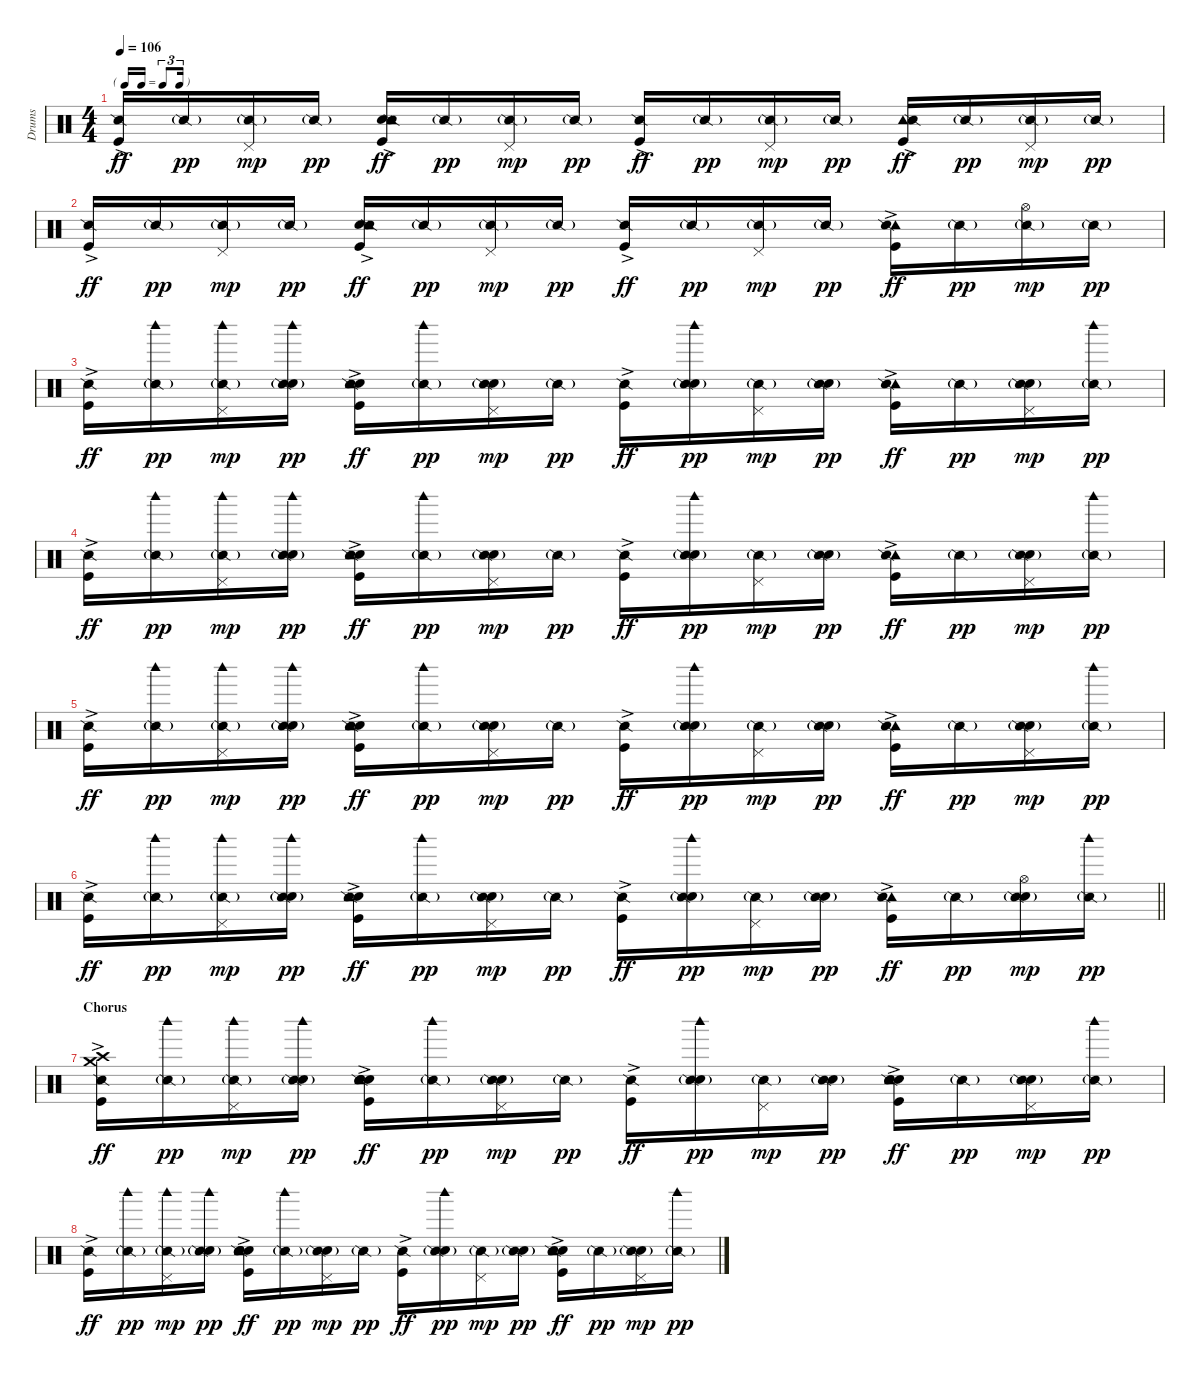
\track ("Drums" "Drums") {instrument percussion}
\staff {score}
\articulation defaults
\ts (4 4)
\tf triplet16th
\tempo 106
\clef neutral
\ks c
("Kick (hit)"{ac} "Snare (side stick) 2").16{dy ff} "Snare (side stick) 2"{g}.16{dy pp} ("Pedal Hi-Hat (hit)" "Snare (side stick) 2"{g}).16{dy mp} "Snare (side stick) 2"{g}.16{dy pp} ("Kick (hit)"{ac} "Hand Clap (hit)" "Tambourine (hit)" "Snare (side stick) 2").16{dy ff} "Snare (side stick) 2"{g}.16{dy pp} ("Pedal Hi-Hat (hit)" "Snare (side stick) 2"{g}).16{dy mp} "Snare (side stick) 2"{g}.16{dy pp} ("Kick (hit)"{ac} "Snare (side stick) 2").16{dy ff} "Snare (side stick) 2"{g}.16{dy pp} ("Pedal Hi-Hat (hit)" "Snare (side stick) 2"{g}).16{dy mp} "Snare (side stick) 2"{g}.16{dy pp} ("Kick (hit)"{ac} "Tambourine (hit)" "Snare (side stick) 2").16{dy ff} "Snare (side stick) 2"{g}.16{dy pp} ("Pedal Hi-Hat (hit)" "Snare (side stick) 2"{g}).16{dy mp} "Snare (side stick) 2"{g}.16{dy pp} |
("Kick (hit)"{ac} "Snare (side stick) 2").16{dy ff} "Snare (side stick) 2"{g}.16{dy pp} ("Pedal Hi-Hat (hit)" "Snare (side stick) 2"{g}).16{dy mp} "Snare (side stick) 2"{g}.16{dy pp} ("Kick (hit)"{ac} "Hand Clap (hit)" "Tambourine (hit)" "Snare (side stick) 2").16{dy ff} "Snare (side stick) 2"{g}.16{dy pp} ("Pedal Hi-Hat (hit)" "Snare (side stick) 2"{g}).16{dy mp} "Snare (side stick) 2"{g}.16{dy pp} ("Kick (hit)"{ac} "Snare (side stick) 2").16{dy ff} "Snare (side stick) 2"{g}.16{dy pp} ("Pedal Hi-Hat (hit)" "Snare (side stick) 2"{g}).16{dy mp} "Snare (side stick) 2"{g}.16{dy pp} ("Kick (hit)"{ac} "Tambourine (hit)" "Snare (side stick) 2").16{dy ff} "Snare (side stick) 2"{g}.16{dy pp} ("Hi-Hat (open)" "Snare (side stick) 2"{g}).16{dy mp} "Snare (side stick) 2"{g}.16{dy pp} |
("Kick (hit)"{ac} "Snare (side stick) 2").16{dy ff} ("Woodblock high (hit)" "Snare (side stick) 2"{g}).16{dy pp} ("Pedal Hi-Hat (hit)" "Woodblock high (hit)" "Snare (side stick) 2"{g}).16{dy mp} ("Hand Clap (hit)" "Woodblock high (hit)" "Snare (side stick) 2"{g}).16{dy pp} ("Kick (hit)"{ac} "Hand Clap (hit)" "Tambourine (hit)" "Snare (side stick) 2").16{dy ff} ("Woodblock high (hit)" "Snare (side stick) 2"{g}).16{dy pp} ("Hand Clap (hit)" "Pedal Hi-Hat (hit)" "Snare (side stick) 2"{g}).16{dy mp} "Snare (side stick) 2"{g}.16{dy pp} ("Kick (hit)"{ac} "Snare (side stick) 2").16{dy ff} ("Hand Clap (hit)" "Woodblock high (hit)" "Snare (side stick) 2"{g}).16{dy pp} ("Pedal Hi-Hat (hit)" "Snare (side stick) 2"{g}).16{dy mp} ("Hand Clap (hit)" "Snare (side stick) 2"{g}).16{dy pp} ("Kick (hit)"{ac} "Tambourine (hit)" "Snare (side stick) 2").16{dy ff} "Snare (side stick) 2"{g}.16{dy pp} ("Hand Clap (hit)" "Pedal Hi-Hat (hit)" "Snare (side stick) 2"{g}).16{dy mp} ("Woodblock high (hit)" "Snare (side stick) 2"{g}).16{dy pp} |
("Kick (hit)"{ac} "Snare (side stick) 2").16{dy ff} ("Woodblock high (hit)" "Snare (side stick) 2"{g}).16{dy pp} ("Pedal Hi-Hat (hit)" "Woodblock high (hit)" "Snare (side stick) 2"{g}).16{dy mp} ("Hand Clap (hit)" "Woodblock high (hit)" "Snare (side stick) 2"{g}).16{dy pp} ("Kick (hit)"{ac} "Hand Clap (hit)" "Tambourine (hit)" "Snare (side stick) 2").16{dy ff} ("Woodblock high (hit)" "Snare (side stick) 2"{g}).16{dy pp} ("Hand Clap (hit)" "Pedal Hi-Hat (hit)" "Snare (side stick) 2"{g}).16{dy mp} "Snare (side stick) 2"{g}.16{dy pp} ("Kick (hit)"{ac} "Snare (side stick) 2").16{dy ff} ("Hand Clap (hit)" "Woodblock high (hit)" "Snare (side stick) 2"{g}).16{dy pp} ("Pedal Hi-Hat (hit)" "Snare (side stick) 2"{g}).16{dy mp} ("Hand Clap (hit)" "Snare (side stick) 2"{g}).16{dy pp} ("Kick (hit)"{ac} "Tambourine (hit)" "Snare (side stick) 2").16{dy ff} "Snare (side stick) 2"{g}.16{dy pp} ("Hand Clap (hit)" "Pedal Hi-Hat (hit)" "Snare (side stick) 2"{g}).16{dy mp} ("Woodblock high (hit)" "Snare (side stick) 2"{g}).16{dy pp} |
("Kick (hit)"{ac} "Snare (side stick) 2").16{dy ff} ("Woodblock high (hit)" "Snare (side stick) 2"{g}).16{dy pp} ("Pedal Hi-Hat (hit)" "Woodblock high (hit)" "Snare (side stick) 2"{g}).16{dy mp} ("Hand Clap (hit)" "Woodblock high (hit)" "Snare (side stick) 2"{g}).16{dy pp} ("Kick (hit)"{ac} "Hand Clap (hit)" "Tambourine (hit)" "Snare (side stick) 2").16{dy ff} ("Woodblock high (hit)" "Snare (side stick) 2"{g}).16{dy pp} ("Hand Clap (hit)" "Pedal Hi-Hat (hit)" "Snare (side stick) 2"{g}).16{dy mp} "Snare (side stick) 2"{g}.16{dy pp} ("Kick (hit)"{ac} "Snare (side stick) 2").16{dy ff} ("Hand Clap (hit)" "Woodblock high (hit)" "Snare (side stick) 2"{g}).16{dy pp} ("Pedal Hi-Hat (hit)" "Snare (side stick) 2"{g}).16{dy mp} ("Hand Clap (hit)" "Snare (side stick) 2"{g}).16{dy pp} ("Kick (hit)"{ac} "Tambourine (hit)" "Snare (side stick) 2").16{dy ff} "Snare (side stick) 2"{g}.16{dy pp} ("Hand Clap (hit)" "Pedal Hi-Hat (hit)" "Snare (side stick) 2"{g}).16{dy mp} ("Woodblock high (hit)" "Snare (side stick) 2"{g}).16{dy pp} |
\barLineRight lightlight
("Kick (hit)"{ac} "Snare (side stick) 2").16{dy ff} ("Woodblock high (hit)" "Snare (side stick) 2"{g}).16{dy pp} ("Pedal Hi-Hat (hit)" "Woodblock high (hit)" "Snare (side stick) 2"{g}).16{dy mp} ("Hand Clap (hit)" "Woodblock high (hit)" "Snare (side stick) 2"{g}).16{dy pp} ("Kick (hit)"{ac} "Hand Clap (hit)" "Tambourine (hit)" "Snare (side stick) 2").16{dy ff} ("Woodblock high (hit)" "Snare (side stick) 2"{g}).16{dy pp} ("Hand Clap (hit)" "Pedal Hi-Hat (hit)" "Snare (side stick) 2"{g}).16{dy mp} "Snare (side stick) 2"{g}.16{dy pp} ("Kick (hit)"{ac} "Snare (side stick) 2").16{dy ff} ("Hand Clap (hit)" "Woodblock high (hit)" "Snare (side stick) 2"{g}).16{dy pp} ("Pedal Hi-Hat (hit)" "Snare (side stick) 2"{g}).16{dy mp} ("Hand Clap (hit)" "Snare (side stick) 2"{g}).16{dy pp} ("Kick (hit)"{ac} "Tambourine (hit)" "Snare (side stick) 2").16{dy ff} "Snare (side stick) 2"{g}.16{dy pp} ("Hand Clap (hit)" "Hi-Hat (open)" "Snare (side stick) 2"{g}).16{dy mp} ("Woodblock high (hit)" "Snare (side stick) 2"{g}).16{dy pp} |
\section ("" "Chorus")
("Kick (hit)"{ac} "Crash high (hit)" "Crash medium (hit)" "Snare (side stick) 2").16{dy ff} ("Woodblock high (hit)" "Snare (side stick) 2"{g}).16{dy pp} ("Pedal Hi-Hat (hit)" "Woodblock high (hit)" "Snare (side stick) 2"{g}).16{dy mp} ("Hand Clap (hit)" "Woodblock high (hit)" "Snare (side stick) 2"{g}).16{dy pp} ("Kick (hit)"{ac} "Hand Clap (hit)" "Snare (hit) 2"{ac} "Electric Snare (hit)" "Tambourine (hit)" "Snare (side stick) 2").16{dy ff} ("Woodblock high (hit)" "Snare (side stick) 2"{g}).16{dy pp} ("Hand Clap (hit)" "Pedal Hi-Hat (hit)" "Snare (side stick) 2"{g}).16{dy mp} "Snare (side stick) 2"{g}.16{dy pp} ("Kick (hit)"{ac} "Snare (side stick) 2").16{dy ff} ("Hand Clap (hit)" "Woodblock high (hit)" "Snare (side stick) 2"{g}).16{dy pp} ("Pedal Hi-Hat (hit)" "Snare (side stick) 2"{g}).16{dy mp} ("Hand Clap (hit)" "Snare (side stick) 2"{g}).16{dy pp} ("Kick (hit)"{ac} "Snare (hit) 2"{ac} "Electric Snare (hit)" "Tambourine (hit)" "Snare (side stick) 2").16{dy ff} "Snare (side stick) 2"{g}.16{dy pp} ("Hand Clap (hit)" "Pedal Hi-Hat (hit)" "Snare (side stick) 2"{g}).16{dy mp} ("Woodblock high (hit)" "Snare (side stick) 2"{g}).16{dy pp} |
("Kick (hit)"{ac} "Snare (side stick) 2").16{dy ff} ("Woodblock high (hit)" "Snare (side stick) 2"{g}).16{dy pp} ("Pedal Hi-Hat (hit)" "Woodblock high (hit)" "Snare (side stick) 2"{g}).16{dy mp} ("Hand Clap (hit)" "Woodblock high (hit)" "Snare (side stick) 2"{g}).16{dy pp} ("Kick (hit)"{ac} "Hand Clap (hit)" "Snare (hit) 2"{ac} "Electric Snare (hit)" "Tambourine (hit)" "Snare (side stick) 2").16{dy ff} ("Woodblock high (hit)" "Snare (side stick) 2"{g}).16{dy pp} ("Hand Clap (hit)" "Pedal Hi-Hat (hit)" "Snare (side stick) 2"{g}).16{dy mp} "Snare (side stick) 2"{g}.16{dy pp} ("Kick (hit)"{ac} "Snare (side stick) 2").16{dy ff} ("Hand Clap (hit)" "Woodblock high (hit)" "Snare (side stick) 2"{g}).16{dy pp} ("Pedal Hi-Hat (hit)" "Snare (side stick) 2"{g}).16{dy mp} ("Hand Clap (hit)" "Snare (side stick) 2"{g}).16{dy pp} ("Kick (hit)"{ac} "Snare (hit) 2"{ac} "Electric Snare (hit)" "Tambourine (hit)" "Snare (side stick) 2").16{dy ff} "Snare (side stick) 2"{g}.16{dy pp} ("Hand Clap (hit)" "Pedal Hi-Hat (hit)" "Snare (side stick) 2"{g}).16{dy mp} ("Woodblock high (hit)" "Snare (side stick) 2"{g}).16{dy pp}
